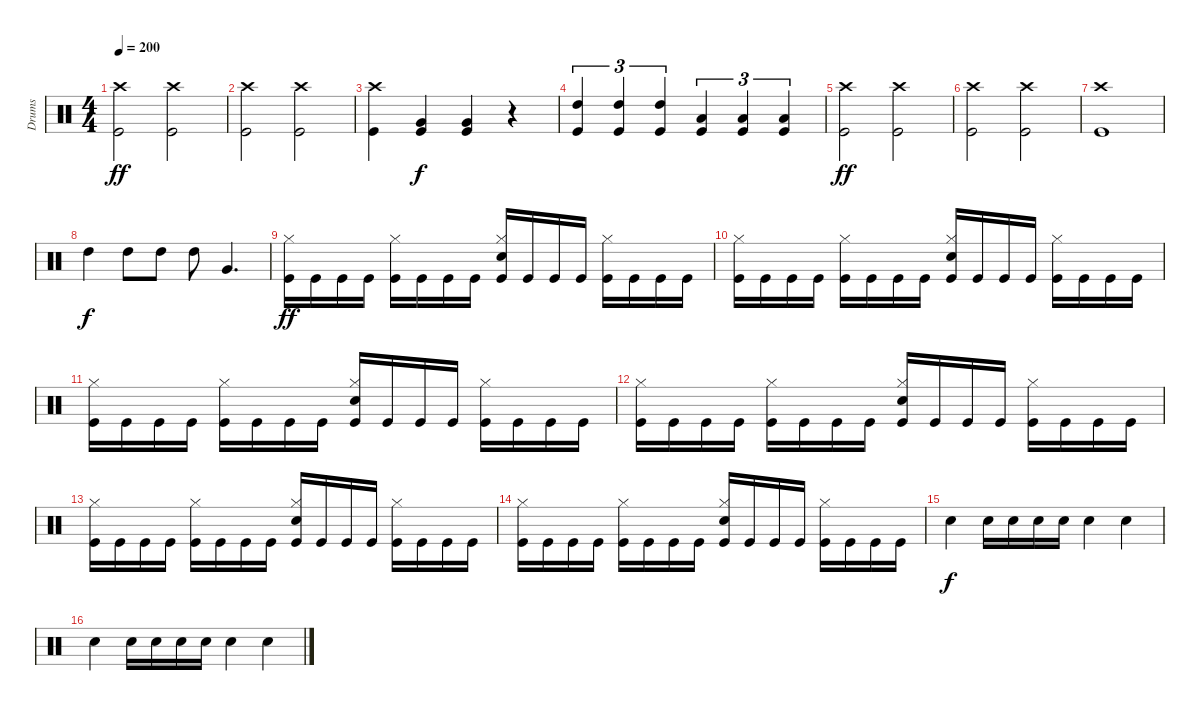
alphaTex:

\track ("Drums" "Drums") {instrument percussion}
\staff {score}
\articulation defaults
\ts (4 4)
\tempo 200
\clef neutral
\ks c
("Crash high (hit)" "Kick (hit)").2{dy ff} ("Crash high (hit)" "Kick (hit)").2 |
("Crash high (hit)" "Kick (hit)").2 ("Crash high (hit)" "Kick (hit)").2 |
("Crash high (hit)" "Kick (hit)").4 ("Very Low Tom (hit)" "Kick (hit)").4{dy f} ("Very Low Tom (hit)" "Kick (hit)").4 r.4 |
("High Tom (hit)" "Kick (hit)").4{tu (3 2)} ("High Tom (hit)" "Kick (hit)").4{tu (3 2)} ("High Tom (hit)" "Kick (hit)").4{tu (3 2)} ("Low Tom (hit)" "Kick (hit)").4{tu (3 2)} ("Low Tom (hit)" "Kick (hit)").4{tu (3 2)} ("Low Tom (hit)" "Kick (hit)").4{tu (3 2)} |
("Crash high (hit)" "Kick (hit)").2{dy ff} ("Crash high (hit)" "Kick (hit)").2 |
("Crash high (hit)" "Kick (hit)").2 ("Crash high (hit)" "Kick (hit)").2 |
("Crash high (hit)" "Kick (hit)").1 |
"High Tom (hit)".4{dy f} "High Tom (hit)".8 "High Tom (hit)".8 "High Tom (hit)".8 "Very Low Tom (hit)".4{d} |
("Hi-Hat (closed)" "Kick (hit)").16{dy ff} "Kick (hit)".16 "Kick (hit)".16 "Kick (hit)".16 ("Hi-Hat (closed)" "Kick (hit)").16 "Kick (hit)".16 "Kick (hit)".16 "Kick (hit)".16 ("Hi-Hat (closed)" "Electric Snare (hit)" "Kick (hit)").16 "Kick (hit)".16 "Kick (hit)".16 "Kick (hit)".16 ("Hi-Hat (closed)" "Kick (hit)").16 "Kick (hit)".16 "Kick (hit)".16 "Kick (hit)".16 |
("Hi-Hat (closed)" "Kick (hit)").16 "Kick (hit)".16 "Kick (hit)".16 "Kick (hit)".16 ("Hi-Hat (closed)" "Kick (hit)").16 "Kick (hit)".16 "Kick (hit)".16 "Kick (hit)".16 ("Hi-Hat (closed)" "Electric Snare (hit)" "Kick (hit)").16 "Kick (hit)".16 "Kick (hit)".16 "Kick (hit)".16 ("Hi-Hat (closed)" "Kick (hit)").16 "Kick (hit)".16 "Kick (hit)".16 "Kick (hit)".16 |
("Hi-Hat (closed)" "Kick (hit)").16 "Kick (hit)".16 "Kick (hit)".16 "Kick (hit)".16 ("Hi-Hat (closed)" "Kick (hit)").16 "Kick (hit)".16 "Kick (hit)".16 "Kick (hit)".16 ("Hi-Hat (closed)" "Electric Snare (hit)" "Kick (hit)").16 "Kick (hit)".16 "Kick (hit)".16 "Kick (hit)".16 ("Hi-Hat (closed)" "Kick (hit)").16 "Kick (hit)".16 "Kick (hit)".16 "Kick (hit)".16 |
("Hi-Hat (closed)" "Kick (hit)").16 "Kick (hit)".16 "Kick (hit)".16 "Kick (hit)".16 ("Hi-Hat (closed)" "Kick (hit)").16 "Kick (hit)".16 "Kick (hit)".16 "Kick (hit)".16 ("Hi-Hat (closed)" "Electric Snare (hit)" "Kick (hit)").16 "Kick (hit)".16 "Kick (hit)".16 "Kick (hit)".16 ("Hi-Hat (closed)" "Kick (hit)").16 "Kick (hit)".16 "Kick (hit)".16 "Kick (hit)".16 |
("Hi-Hat (closed)" "Kick (hit)").16 "Kick (hit)".16 "Kick (hit)".16 "Kick (hit)".16 ("Hi-Hat (closed)" "Kick (hit)").16 "Kick (hit)".16 "Kick (hit)".16 "Kick (hit)".16 ("Hi-Hat (closed)" "Electric Snare (hit)" "Kick (hit)").16 "Kick (hit)".16 "Kick (hit)".16 "Kick (hit)".16 ("Hi-Hat (closed)" "Kick (hit)").16 "Kick (hit)".16 "Kick (hit)".16 "Kick (hit)".16 |
("Hi-Hat (closed)" "Kick (hit)").16 "Kick (hit)".16 "Kick (hit)".16 "Kick (hit)".16 ("Hi-Hat (closed)" "Kick (hit)").16 "Kick (hit)".16 "Kick (hit)".16 "Kick (hit)".16 ("Hi-Hat (closed)" "Electric Snare (hit)" "Kick (hit)").16 "Kick (hit)".16 "Kick (hit)".16 "Kick (hit)".16 ("Hi-Hat (closed)" "Kick (hit)").16 "Kick (hit)".16 "Kick (hit)".16 "Kick (hit)".16 |
"Electric Snare (hit)".4{dy f} "Electric Snare (hit)".16 "Electric Snare (hit)".16 "Electric Snare (hit)".16 "Electric Snare (hit)".16 "Electric Snare (hit)".4 "Electric Snare (hit)".4 |
"Electric Snare (hit)".4 "Electric Snare (hit)".16 "Electric Snare (hit)".16 "Electric Snare (hit)".16 "Electric Snare (hit)".16 "Electric Snare (hit)".4 "Electric Snare (hit)".4
